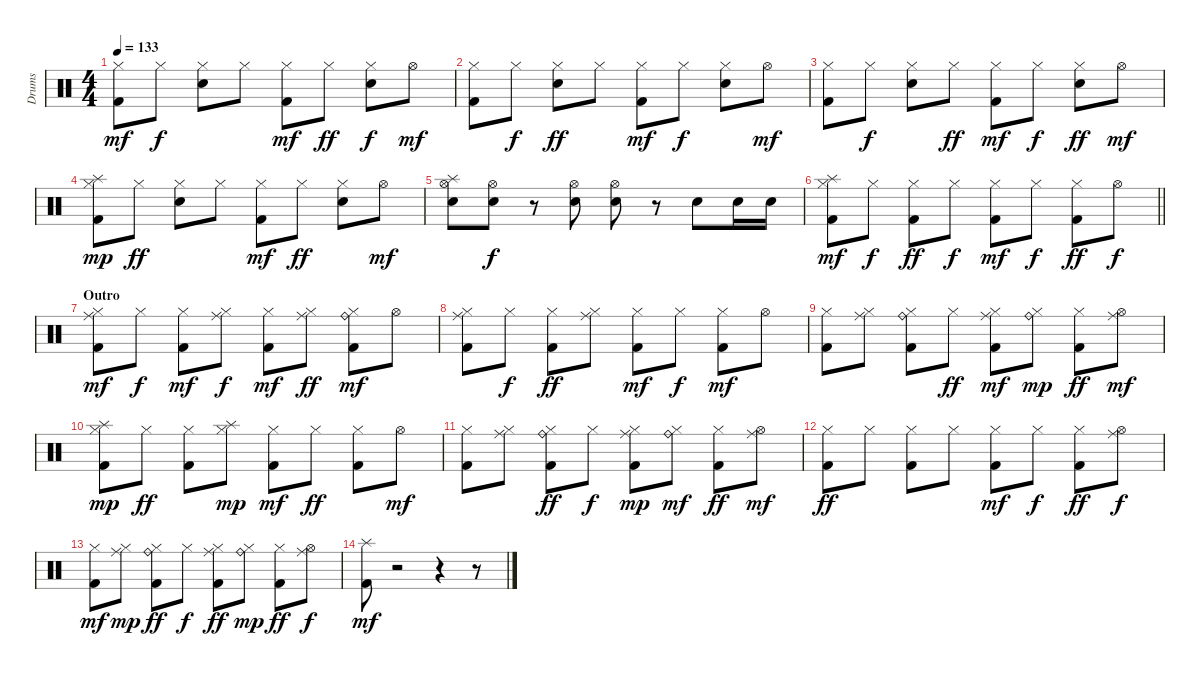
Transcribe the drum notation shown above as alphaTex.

\track ("Drums   " "Drums   ") {instrument percussion}
\staff {score}
\articulation defaults
\ts (4 4)
\tempo 133
\clef neutral
\ks c
("Kick (hit) 2" "Hi-Hat (closed)").8{dy mf} "Hi-Hat (closed)".8{dy f} ("Electric Snare (hit)" "Hi-Hat (closed)").8 "Hi-Hat (closed)".8 ("Kick (hit) 2" "Hi-Hat (closed)").8{dy mf} "Hi-Hat (closed)".8{dy ff} ("Electric Snare (hit)" "Hi-Hat (closed)").8{dy f} "Hi-Hat (open)".8{dy mf} |
("Kick (hit) 2" "Hi-Hat (closed)").8 "Hi-Hat (closed)".8{dy f} ("Electric Snare (hit)" "Hi-Hat (closed)").8{dy ff} "Hi-Hat (closed)".8 ("Kick (hit) 2" "Hi-Hat (closed)").8{dy mf} "Hi-Hat (closed)".8{dy f} ("Electric Snare (hit)" "Hi-Hat (closed)").8 "Hi-Hat (open)".8{dy mf} |
("Kick (hit) 2" "Hi-Hat (closed)").8 "Hi-Hat (closed)".8{dy f} ("Electric Snare (hit)" "Hi-Hat (closed)").8 "Hi-Hat (closed)".8{dy ff} ("Kick (hit) 2" "Hi-Hat (closed)").8{dy mf} "Hi-Hat (closed)".8{dy f} ("Electric Snare (hit)" "Hi-Hat (closed)").8{dy ff} "Hi-Hat (open)".8{dy mf} |
("Kick (hit) 2" "Hi-Hat (closed)" "Splash (hit)").8{dy mp} "Hi-Hat (closed)".8{dy ff} ("Electric Snare (hit)" "Hi-Hat (closed)").8 "Hi-Hat (closed)".8 ("Kick (hit) 2" "Hi-Hat (closed)").8{dy mf} "Hi-Hat (closed)".8{dy ff} ("Electric Snare (hit)" "Hi-Hat (closed)").8 "Hi-Hat (open)".8{dy mf} |
("Electric Snare (hit)" "Hi-Hat (open)" "Splash (hit)").8 ("Electric Snare (hit)" "Hi-Hat (open)").8{dy f} r.8 ("Electric Snare (hit)" "Hi-Hat (open)").8 ("Electric Snare (hit)" "Hi-Hat (open)").8 r.8 "Electric Snare (hit)".8 "Electric Snare (hit)".16 "Electric Snare (hit)".16 |
\barLineRight lightlight
("Kick (hit) 2" "Hi-Hat (closed)" "Splash (hit)").8{dy mf} "Hi-Hat (closed)".8{dy f} ("Kick (hit) 2" "Hi-Hat (closed)").8{dy ff} "Hi-Hat (closed)".8{dy f} ("Kick (hit) 2" "Hi-Hat (closed)").8{dy mf} "Hi-Hat (closed)".8{dy f} ("Kick (hit) 2" "Hi-Hat (closed)").8{dy ff} "Hi-Hat (open)".8{dy f} |
\section ("" "Outro")
("Kick (hit) 2" "Hi-Hat (closed)" "Ride (middle)").8{dy mf} "Hi-Hat (closed)".8{dy f} ("Kick (hit) 2" "Hi-Hat (closed)").8{dy mf} ("Hi-Hat (closed)" "Ride (middle)").8{dy f} ("Kick (hit) 2" "Hi-Hat (closed)").8{dy mf} ("Hi-Hat (closed)" "Ride (middle)").8{dy ff} ("Kick (hit) 2" "Hi-Hat (closed)" "Ride (bell)").8{dy mf} "Hi-Hat (open)".8 |
("Kick (hit) 2" "Hi-Hat (closed)" "Ride (middle)").8 "Hi-Hat (closed)".8{dy f} ("Kick (hit) 2" "Hi-Hat (closed)").8{dy ff} ("Hi-Hat (closed)" "Ride (middle)").8 ("Kick (hit) 2" "Hi-Hat (closed)").8{dy mf} "Hi-Hat (closed)".8{dy f} ("Kick (hit) 2" "Hi-Hat (closed)").8{dy mf} "Hi-Hat (open)".8 |
("Kick (hit) 2" "Hi-Hat (closed)").8 ("Hi-Hat (closed)" "Ride (middle)").8 ("Kick (hit) 2" "Hi-Hat (closed)" "Ride (bell)").8 "Hi-Hat (closed)".8{dy ff} ("Kick (hit) 2" "Hi-Hat (closed)" "Ride (middle)").8{dy mf} ("Hi-Hat (closed)" "Ride (bell)").8{dy mp} ("Kick (hit) 2" "Hi-Hat (closed)").8{dy ff} ("Hi-Hat (open)" "Ride (middle)").8{dy mf} |
("Kick (hit) 2" "Hi-Hat (closed)" "Splash (hit)").8{dy mp} "Hi-Hat (closed)".8{dy ff} ("Kick (hit) 2" "Hi-Hat (closed)").8 ("Hi-Hat (closed)" "Splash (hit)").8{dy mp} ("Kick (hit) 2" "Hi-Hat (closed)").8{dy mf} "Hi-Hat (closed)".8{dy ff} ("Kick (hit) 2" "Hi-Hat (closed)").8 "Hi-Hat (open)".8{dy mf} |
("Kick (hit) 2" "Hi-Hat (closed)").8 ("Hi-Hat (closed)" "Ride (middle)").8 ("Kick (hit) 2" "Hi-Hat (closed)" "Ride (bell)").8{dy ff} "Hi-Hat (closed)".8{dy f} ("Kick (hit) 2" "Hi-Hat (closed)" "Ride (middle)").8{dy mp} ("Hi-Hat (closed)" "Ride (bell)").8{dy mf} ("Kick (hit) 2" "Hi-Hat (closed)").8{dy ff} ("Hi-Hat (open)" "Ride (middle)").8{dy mf} |
("Kick (hit) 2" "Hi-Hat (closed)").8{dy ff} "Hi-Hat (closed)".8 ("Kick (hit) 2" "Hi-Hat (closed)").8 "Hi-Hat (closed)".8 ("Kick (hit) 2" "Hi-Hat (closed)").8{dy mf} "Hi-Hat (closed)".8{dy f} ("Kick (hit) 2" "Hi-Hat (closed)").8{dy ff} ("Hi-Hat (open)" "Ride (middle)").8{dy f} |
("Kick (hit) 2" "Hi-Hat (closed)").8{dy mf} ("Hi-Hat (closed)" "Ride (middle)").8{dy mp} ("Kick (hit) 2" "Hi-Hat (closed)" "Ride (bell)").8{dy ff} "Hi-Hat (closed)".8{dy f} ("Kick (hit) 2" "Hi-Hat (closed)" "Ride (middle)").8{dy ff} ("Hi-Hat (closed)" "Ride (bell)").8{dy mp} ("Kick (hit) 2" "Hi-Hat (closed)").8{dy ff} ("Hi-Hat (open)" "Ride (middle)").8{dy f} |
("Kick (hit) 2" "Splash (hit)").8{dy mf} r.2 r.4 r.8
